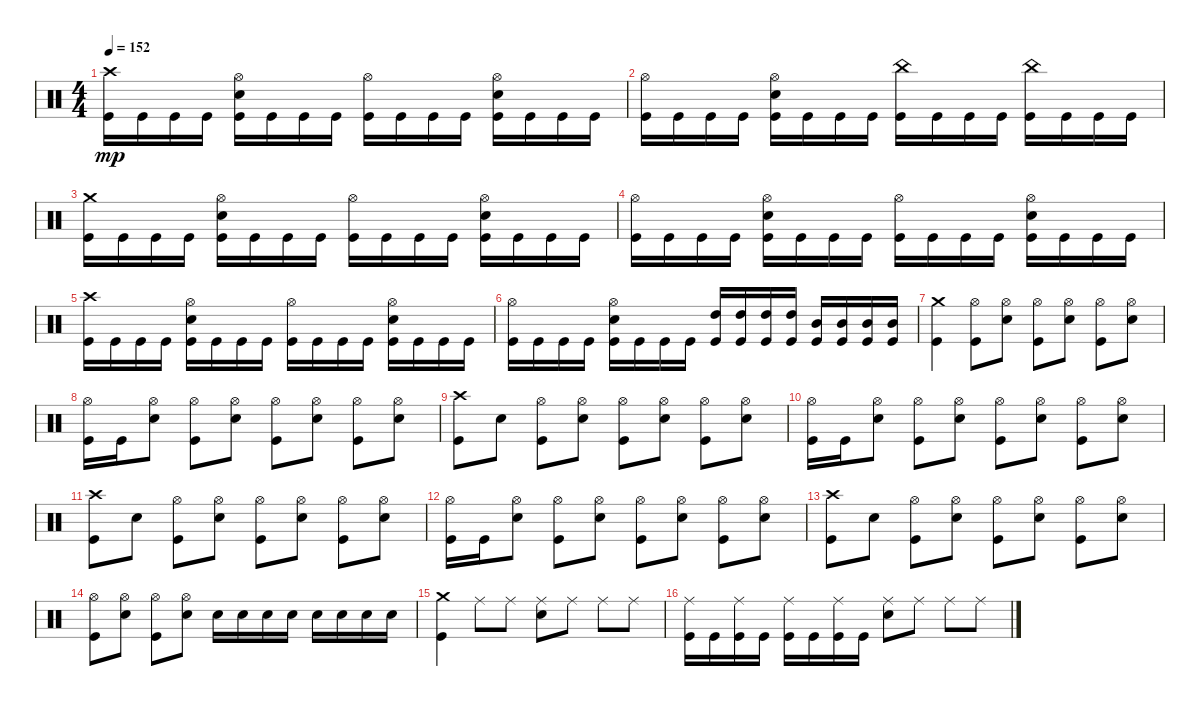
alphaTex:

\track "" {instrument percussion}
\staff {score}
\articulation defaults
\ts (4 4)
\tempo 152
\clef neutral
\ks c
("Kick (hit)" "Crash high (hit)").16{dy mp} "Kick (hit)".16 "Kick (hit)".16 "Kick (hit)".16 ("Kick (hit)" "Snare (hit) 2" "Hi-Hat (open)").16 "Kick (hit)".16 "Kick (hit)".16 "Kick (hit)".16 ("Kick (hit)" "Hi-Hat (open)").16 "Kick (hit)".16 "Kick (hit)".16 "Kick (hit)".16 ("Kick (hit)" "Snare (hit) 2" "Hi-Hat (open)").16 "Kick (hit)".16 "Kick (hit)".16 "Kick (hit)".16 |
("Kick (hit)" "Hi-Hat (open)").16 "Kick (hit)".16 "Kick (hit)".16 "Kick (hit)".16 ("Kick (hit)" "Snare (hit) 2" "Hi-Hat (open)").16 "Kick (hit)".16 "Kick (hit)".16 "Kick (hit)".16 ("Kick (hit)" "China (hit)").16 "Kick (hit)".16 "Kick (hit)".16 "Kick (hit)".16 ("Kick (hit)" "China (hit)").16 "Kick (hit)".16 "Kick (hit)".16 "Kick (hit)".16 |
("Kick (hit)" "Crash medium (hit)").16 "Kick (hit)".16 "Kick (hit)".16 "Kick (hit)".16 ("Kick (hit)" "Snare (hit) 2" "Hi-Hat (open)").16 "Kick (hit)".16 "Kick (hit)".16 "Kick (hit)".16 ("Kick (hit)" "Hi-Hat (open)").16 "Kick (hit)".16 "Kick (hit)".16 "Kick (hit)".16 ("Kick (hit)" "Snare (hit) 2" "Hi-Hat (open)").16 "Kick (hit)".16 "Kick (hit)".16 "Kick (hit)".16 |
("Kick (hit)" "Hi-Hat (open)").16 "Kick (hit)".16 "Kick (hit)".16 "Kick (hit)".16 ("Kick (hit)" "Snare (hit) 2" "Hi-Hat (open)").16 "Kick (hit)".16 "Kick (hit)".16 "Kick (hit)".16 ("Kick (hit)" "Hi-Hat (open)").16 "Kick (hit)".16 "Kick (hit)".16 "Kick (hit)".16 ("Kick (hit)" "Snare (hit) 2" "Hi-Hat (open)").16 "Kick (hit)".16 "Kick (hit)".16 "Kick (hit)".16 |
("Kick (hit)" "Crash high (hit)").16 "Kick (hit)".16 "Kick (hit)".16 "Kick (hit)".16 ("Kick (hit)" "Snare (hit) 2" "Hi-Hat (open)").16 "Kick (hit)".16 "Kick (hit)".16 "Kick (hit)".16 ("Kick (hit)" "Hi-Hat (open)").16 "Kick (hit)".16 "Kick (hit)".16 "Kick (hit)".16 ("Kick (hit)" "Snare (hit) 2" "Hi-Hat (open)").16 "Kick (hit)".16 "Kick (hit)".16 "Kick (hit)".16 |
("Kick (hit)" "Hi-Hat (open)").16 "Kick (hit)".16 "Kick (hit)".16 "Kick (hit)".16 ("Kick (hit)" "Snare (hit) 2" "Hi-Hat (open)").16 "Kick (hit)".16 "Kick (hit)".16 "Kick (hit)".16 ("Kick (hit)" "High Tom (hit)").16 ("Kick (hit)" "High Tom (hit)").16 ("Kick (hit)" "High Tom (hit)").16 ("Kick (hit)" "High Tom (hit)").16 ("Kick (hit)" "Mid Tom (hit)").16 ("Kick (hit)" "Mid Tom (hit)").16 ("Kick (hit)" "Mid Tom (hit)").16 ("Kick (hit)" "Mid Tom (hit)").16 |
("Kick (hit)" "Crash medium (hit)").4 ("Kick (hit)" "Hi-Hat (open)").8 ("Snare (hit) 2" "Hi-Hat (open)").8 ("Kick (hit)" "Hi-Hat (open)").8 ("Snare (hit) 2" "Hi-Hat (open)").8 ("Kick (hit)" "Hi-Hat (open)").8 ("Snare (hit) 2" "Hi-Hat (open)").8 |
("Kick (hit)" "Hi-Hat (open)").16 "Kick (hit)".16 ("Snare (hit) 2" "Hi-Hat (open)").8 ("Kick (hit)" "Hi-Hat (open)").8 ("Snare (hit) 2" "Hi-Hat (open)").8 ("Kick (hit)" "Hi-Hat (open)").8 ("Snare (hit) 2" "Hi-Hat (open)").8 ("Kick (hit)" "Hi-Hat (open)").8 ("Snare (hit) 2" "Hi-Hat (open)").8 |
("Kick (hit)" "Crash high (hit)").8 "Snare (hit) 2".8 ("Kick (hit)" "Hi-Hat (open)").8 ("Snare (hit) 2" "Hi-Hat (open)").8 ("Kick (hit)" "Hi-Hat (open)").8 ("Snare (hit) 2" "Hi-Hat (open)").8 ("Kick (hit)" "Hi-Hat (open)").8 ("Snare (hit) 2" "Hi-Hat (open)").8 |
("Kick (hit)" "Hi-Hat (open)").16 "Kick (hit)".16 ("Snare (hit) 2" "Hi-Hat (open)").8 ("Kick (hit)" "Hi-Hat (open)").8 ("Snare (hit) 2" "Hi-Hat (open)").8 ("Kick (hit)" "Hi-Hat (open)").8 ("Snare (hit) 2" "Hi-Hat (open)").8 ("Kick (hit)" "Hi-Hat (open)").8 ("Snare (hit) 2" "Hi-Hat (open)").8 |
("Kick (hit)" "Crash high (hit)").8 "Snare (hit) 2".8 ("Kick (hit)" "Hi-Hat (open)").8 ("Snare (hit) 2" "Hi-Hat (open)").8 ("Kick (hit)" "Hi-Hat (open)").8 ("Snare (hit) 2" "Hi-Hat (open)").8 ("Kick (hit)" "Hi-Hat (open)").8 ("Snare (hit) 2" "Hi-Hat (open)").8 |
("Kick (hit)" "Hi-Hat (open)").16 "Kick (hit)".16 ("Snare (hit) 2" "Hi-Hat (open)").8 ("Kick (hit)" "Hi-Hat (open)").8 ("Snare (hit) 2" "Hi-Hat (open)").8 ("Kick (hit)" "Hi-Hat (open)").8 ("Snare (hit) 2" "Hi-Hat (open)").8 ("Kick (hit)" "Hi-Hat (open)").8 ("Snare (hit) 2" "Hi-Hat (open)").8 |
("Kick (hit)" "Crash high (hit)").8 "Snare (hit) 2".8 ("Kick (hit)" "Hi-Hat (open)").8 ("Snare (hit) 2" "Hi-Hat (open)").8 ("Kick (hit)" "Hi-Hat (open)").8 ("Snare (hit) 2" "Hi-Hat (open)").8 ("Kick (hit)" "Hi-Hat (open)").8 ("Snare (hit) 2" "Hi-Hat (open)").8 |
("Kick (hit)" "Hi-Hat (open)").8 ("Snare (hit) 2" "Hi-Hat (open)").8 ("Kick (hit)" "Hi-Hat (open)").8 ("Snare (hit) 2" "Hi-Hat (open)").8 "Snare (hit) 2".16 "Snare (hit) 2".16 "Snare (hit) 2".16 "Snare (hit) 2".16 "Snare (hit) 2".16 "Snare (hit) 2".16 "Snare (hit) 2".16 "Snare (hit) 2".16 |
("Kick (hit)" "Crash medium (hit)").4 "Ride (middle)".8 "Ride (middle)".8 ("Ride (middle)" "Snare (hit) 2").8 "Ride (middle)".8 "Ride (middle)".8 "Ride (middle)".8 |
("Ride (middle)" "Kick (hit)").16 "Kick (hit)".16 ("Ride (middle)" "Kick (hit)").16 "Kick (hit)".16 ("Ride (middle)" "Kick (hit)").16 "Kick (hit)".16 ("Ride (middle)" "Kick (hit)").16 "Kick (hit)".16 ("Ride (middle)" "Snare (hit) 2").8 "Ride (middle)".8 "Ride (middle)".8 "Ride (middle)".8
